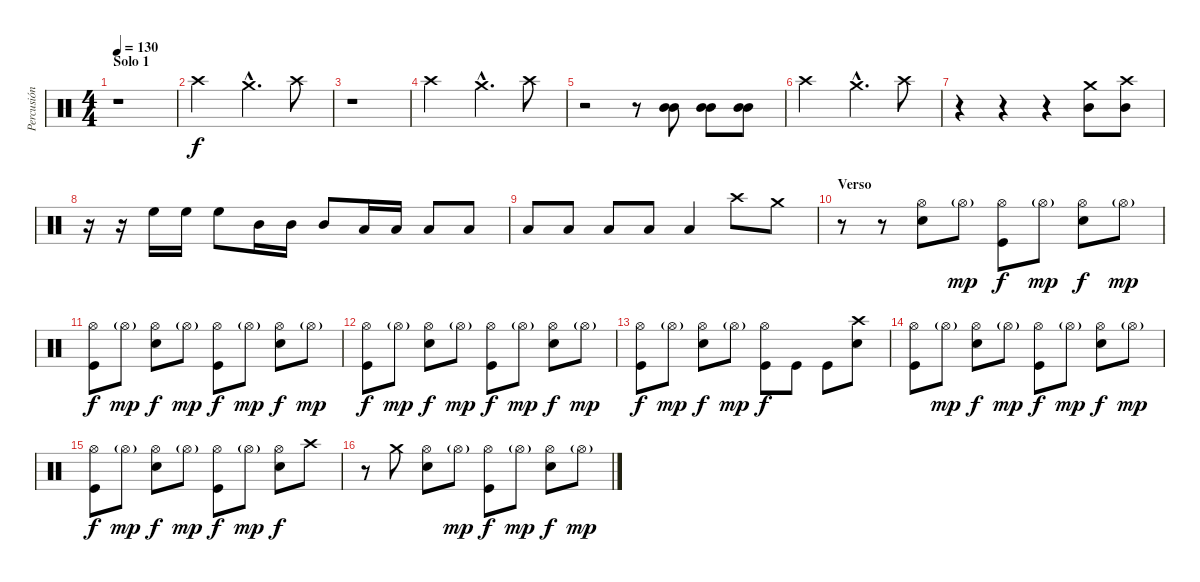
\track ("Percusión" "Percusión") {instrument percussion}
\staff {score}
\articulation defaults
\ts (4 4)
\section ("" "Solo 1")
\tempo 130
\clef neutral
\ks c
r.1{dy f} |
"Crash high (hit)".2 "Crash medium (hit)"{hac}.4{d} "Crash high (hit)".8 |
r.1 |
"Crash high (hit)".2 "Crash medium (hit)"{hac}.4{d} "Crash high (hit)".8 |
r.2 r.8 ("Mid Tom (hit)" "Mid Tom (hit)").8 ("Mid Tom (hit)" "Mid Tom (hit)").8 ("Mid Tom (hit)" "Mid Tom (hit)").8 |
"Crash high (hit)".2 "Crash medium (hit)"{hac}.4{d} "Crash high (hit)".8 |
r.4 r.4 r.4 ("Crash medium (hit)" "Mid Tom (hit)").8 ("Crash high (hit)" "Mid Tom (hit)").8 |
r.16 r.16 "High Floor Tom (hit)".16 "High Floor Tom (hit)".16 "High Floor Tom (hit)".8 "Mid Tom (hit)".16 "Mid Tom (hit)".16 "Mid Tom (hit)".8 "Low Tom (hit)".16 "Low Tom (hit)".16 "Low Tom (hit)".8 "Low Tom (hit)".8 |
"Low Tom (hit)".8 "Low Tom (hit)".8 "Low Tom (hit)".8 "Low Tom (hit)".8 "Low Tom (hit)".4 "Crash high (hit)".8 "Crash medium (hit)".8 |
\section ("" "Verso")
r.8 r.8 ("Hi-Hat (open)" "Electric Snare (hit)").8 "Hi-Hat (open)"{g}.8{dy mp} ("Hi-Hat (open)" "Kick (hit)").8{dy f} "Hi-Hat (open)"{g}.8{dy mp} ("Hi-Hat (open)" "Electric Snare (hit)").8{dy f} "Hi-Hat (open)"{g}.8{dy mp} |
("Hi-Hat (open)" "Kick (hit)").8{dy f} "Hi-Hat (open)"{g}.8{dy mp} ("Hi-Hat (open)" "Electric Snare (hit)").8{dy f} "Hi-Hat (open)"{g}.8{dy mp} ("Hi-Hat (open)" "Kick (hit)").8{dy f} "Hi-Hat (open)"{g}.8{dy mp} ("Hi-Hat (open)" "Electric Snare (hit)").8{dy f} "Hi-Hat (open)"{g}.8{dy mp} |
("Hi-Hat (open)" "Kick (hit)").8{dy f} "Hi-Hat (open)"{g}.8{dy mp} ("Hi-Hat (open)" "Electric Snare (hit)").8{dy f} "Hi-Hat (open)"{g}.8{dy mp} ("Hi-Hat (open)" "Kick (hit)").8{dy f} "Hi-Hat (open)"{g}.8{dy mp} ("Hi-Hat (open)" "Electric Snare (hit)").8{dy f} "Hi-Hat (open)"{g}.8{dy mp} |
("Hi-Hat (open)" "Kick (hit)").8{dy f} "Hi-Hat (open)"{g}.8{dy mp} ("Hi-Hat (open)" "Electric Snare (hit)").8{dy f} "Hi-Hat (open)"{g}.8{dy mp} ("Hi-Hat (open)" "Kick (hit)").8{dy f} "Kick (hit)".8 "Kick (hit)".8 ("Crash high (hit)" "Electric Snare (hit)").8 |
("Hi-Hat (open)" "Kick (hit)").8 "Hi-Hat (open)"{g}.8{dy mp} ("Hi-Hat (open)" "Electric Snare (hit)").8{dy f} "Hi-Hat (open)"{g}.8{dy mp} ("Hi-Hat (open)" "Kick (hit)").8{dy f} "Hi-Hat (open)"{g}.8{dy mp} ("Hi-Hat (open)" "Electric Snare (hit)").8{dy f} "Hi-Hat (open)"{g}.8{dy mp} |
("Hi-Hat (open)" "Kick (hit)").8{dy f} "Hi-Hat (open)"{g}.8{dy mp} ("Hi-Hat (open)" "Electric Snare (hit)").8{dy f} "Hi-Hat (open)"{g}.8{dy mp} ("Hi-Hat (open)" "Kick (hit)").8{dy f} "Hi-Hat (open)"{g}.8{dy mp} ("Hi-Hat (open)" "Electric Snare (hit)").8{dy f} "Crash high (hit)".8 |
r.8 "Crash medium (hit)".8 ("Hi-Hat (open)" "Electric Snare (hit)").8 "Hi-Hat (open)"{g}.8{dy mp} ("Hi-Hat (open)" "Kick (hit)").8{dy f} "Hi-Hat (open)"{g}.8{dy mp} ("Hi-Hat (open)" "Electric Snare (hit)").8{dy f} "Hi-Hat (open)"{g}.8{dy mp}
